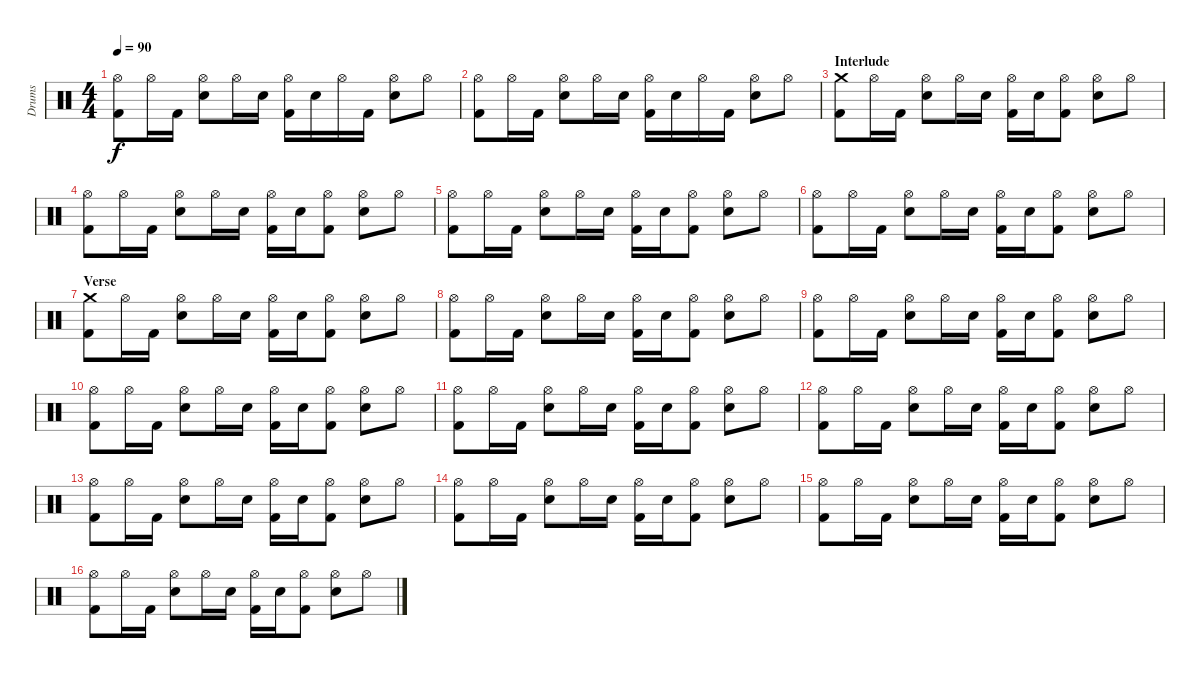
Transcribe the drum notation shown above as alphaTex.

\track ("Drums" "Drums") {instrument percussion}
\staff {score}
\articulation defaults
\ts (4 4)
\tempo 90
\clef neutral
\ks c
("Hi-Hat (open)" "Kick (hit) 2").8{dy f} "Hi-Hat (open)".16 "Kick (hit) 2".16 ("Hi-Hat (open)" "Electric Snare (hit)").8 "Hi-Hat (open)".16 "Electric Snare (hit)".16 ("Hi-Hat (open)" "Kick (hit) 2").16 "Electric Snare (hit)".16 "Hi-Hat (open)".16 "Kick (hit) 2".16 ("Hi-Hat (open)" "Electric Snare (hit)").8 "Hi-Hat (open)".8 |
("Hi-Hat (open)" "Kick (hit) 2").8 "Hi-Hat (open)".16 "Kick (hit) 2".16 ("Hi-Hat (open)" "Electric Snare (hit)").8 "Hi-Hat (open)".16 "Electric Snare (hit)".16 ("Hi-Hat (open)" "Kick (hit) 2").16 "Electric Snare (hit)".16 "Hi-Hat (open)".16 "Kick (hit) 2".16 ("Hi-Hat (open)" "Electric Snare (hit)").8 "Hi-Hat (open)".8 |
\section ("" "Interlude")
("Crash medium (hit)" "Kick (hit) 2").8 "Hi-Hat (open)".16 "Kick (hit) 2".16 ("Hi-Hat (open)" "Electric Snare (hit)").8 "Hi-Hat (open)".16 "Electric Snare (hit)".16 ("Hi-Hat (open)" "Kick (hit) 2").16 "Electric Snare (hit)".16 ("Hi-Hat (open)" "Kick (hit) 2").8 ("Hi-Hat (open)" "Electric Snare (hit)").8 "Hi-Hat (open)".8 |
("Hi-Hat (open)" "Kick (hit) 2").8 "Hi-Hat (open)".16 "Kick (hit) 2".16 ("Hi-Hat (open)" "Electric Snare (hit)").8 "Hi-Hat (open)".16 "Electric Snare (hit)".16 ("Hi-Hat (open)" "Kick (hit) 2").16 "Electric Snare (hit)".16 ("Hi-Hat (open)" "Kick (hit) 2").8 ("Hi-Hat (open)" "Electric Snare (hit)").8 "Hi-Hat (open)".8 |
("Hi-Hat (open)" "Kick (hit) 2").8 "Hi-Hat (open)".16 "Kick (hit) 2".16 ("Hi-Hat (open)" "Electric Snare (hit)").8 "Hi-Hat (open)".16 "Electric Snare (hit)".16 ("Hi-Hat (open)" "Kick (hit) 2").16 "Electric Snare (hit)".16 ("Hi-Hat (open)" "Kick (hit) 2").8 ("Hi-Hat (open)" "Electric Snare (hit)").8 "Hi-Hat (open)".8 |
("Hi-Hat (open)" "Kick (hit) 2").8 "Hi-Hat (open)".16 "Kick (hit) 2".16 ("Hi-Hat (open)" "Electric Snare (hit)").8 "Hi-Hat (open)".16 "Electric Snare (hit)".16 ("Hi-Hat (open)" "Kick (hit) 2").16 "Electric Snare (hit)".16 ("Hi-Hat (open)" "Kick (hit) 2").8 ("Hi-Hat (open)" "Electric Snare (hit)").8 "Hi-Hat (open)".8 |
\section ("" "Verse")
("Crash medium (hit)" "Kick (hit) 2").8 "Hi-Hat (open)".16 "Kick (hit) 2".16 ("Hi-Hat (open)" "Electric Snare (hit)").8 "Hi-Hat (open)".16 "Electric Snare (hit)".16 ("Hi-Hat (open)" "Kick (hit) 2").16 "Electric Snare (hit)".16 ("Hi-Hat (open)" "Kick (hit) 2").8 ("Hi-Hat (open)" "Electric Snare (hit)").8 "Hi-Hat (open)".8 |
("Hi-Hat (open)" "Kick (hit) 2").8 "Hi-Hat (open)".16 "Kick (hit) 2".16 ("Hi-Hat (open)" "Electric Snare (hit)").8 "Hi-Hat (open)".16 "Electric Snare (hit)".16 ("Hi-Hat (open)" "Kick (hit) 2").16 "Electric Snare (hit)".16 ("Hi-Hat (open)" "Kick (hit) 2").8 ("Hi-Hat (open)" "Electric Snare (hit)").8 "Hi-Hat (open)".8 |
("Hi-Hat (open)" "Kick (hit) 2").8 "Hi-Hat (open)".16 "Kick (hit) 2".16 ("Hi-Hat (open)" "Electric Snare (hit)").8 "Hi-Hat (open)".16 "Electric Snare (hit)".16 ("Hi-Hat (open)" "Kick (hit) 2").16 "Electric Snare (hit)".16 ("Hi-Hat (open)" "Kick (hit) 2").8 ("Hi-Hat (open)" "Electric Snare (hit)").8 "Hi-Hat (open)".8 |
("Hi-Hat (open)" "Kick (hit) 2").8 "Hi-Hat (open)".16 "Kick (hit) 2".16 ("Hi-Hat (open)" "Electric Snare (hit)").8 "Hi-Hat (open)".16 "Electric Snare (hit)".16 ("Hi-Hat (open)" "Kick (hit) 2").16 "Electric Snare (hit)".16 ("Hi-Hat (open)" "Kick (hit) 2").8 ("Hi-Hat (open)" "Electric Snare (hit)").8 "Hi-Hat (open)".8 |
("Hi-Hat (open)" "Kick (hit) 2").8 "Hi-Hat (open)".16 "Kick (hit) 2".16 ("Hi-Hat (open)" "Electric Snare (hit)").8 "Hi-Hat (open)".16 "Electric Snare (hit)".16 ("Hi-Hat (open)" "Kick (hit) 2").16 "Electric Snare (hit)".16 ("Hi-Hat (open)" "Kick (hit) 2").8 ("Hi-Hat (open)" "Electric Snare (hit)").8 "Hi-Hat (open)".8 |
("Hi-Hat (open)" "Kick (hit) 2").8 "Hi-Hat (open)".16 "Kick (hit) 2".16 ("Hi-Hat (open)" "Electric Snare (hit)").8 "Hi-Hat (open)".16 "Electric Snare (hit)".16 ("Hi-Hat (open)" "Kick (hit) 2").16 "Electric Snare (hit)".16 ("Hi-Hat (open)" "Kick (hit) 2").8 ("Hi-Hat (open)" "Electric Snare (hit)").8 "Hi-Hat (open)".8 |
("Hi-Hat (open)" "Kick (hit) 2").8 "Hi-Hat (open)".16 "Kick (hit) 2".16 ("Hi-Hat (open)" "Electric Snare (hit)").8 "Hi-Hat (open)".16 "Electric Snare (hit)".16 ("Hi-Hat (open)" "Kick (hit) 2").16 "Electric Snare (hit)".16 ("Hi-Hat (open)" "Kick (hit) 2").8 ("Hi-Hat (open)" "Electric Snare (hit)").8 "Hi-Hat (open)".8 |
("Hi-Hat (open)" "Kick (hit) 2").8 "Hi-Hat (open)".16 "Kick (hit) 2".16 ("Hi-Hat (open)" "Electric Snare (hit)").8 "Hi-Hat (open)".16 "Electric Snare (hit)".16 ("Hi-Hat (open)" "Kick (hit) 2").16 "Electric Snare (hit)".16 ("Hi-Hat (open)" "Kick (hit) 2").8 ("Hi-Hat (open)" "Electric Snare (hit)").8 "Hi-Hat (open)".8 |
("Hi-Hat (open)" "Kick (hit) 2").8 "Hi-Hat (open)".16 "Kick (hit) 2".16 ("Hi-Hat (open)" "Electric Snare (hit)").8 "Hi-Hat (open)".16 "Electric Snare (hit)".16 ("Hi-Hat (open)" "Kick (hit) 2").16 "Electric Snare (hit)".16 ("Hi-Hat (open)" "Kick (hit) 2").8 ("Hi-Hat (open)" "Electric Snare (hit)").8 "Hi-Hat (open)".8 |
("Hi-Hat (open)" "Kick (hit) 2").8 "Hi-Hat (open)".16 "Kick (hit) 2".16 ("Hi-Hat (open)" "Electric Snare (hit)").8 "Hi-Hat (open)".16 "Electric Snare (hit)".16 ("Hi-Hat (open)" "Kick (hit) 2").16 "Electric Snare (hit)".16 ("Hi-Hat (open)" "Kick (hit) 2").8 ("Hi-Hat (open)" "Electric Snare (hit)").8 "Hi-Hat (open)".8
